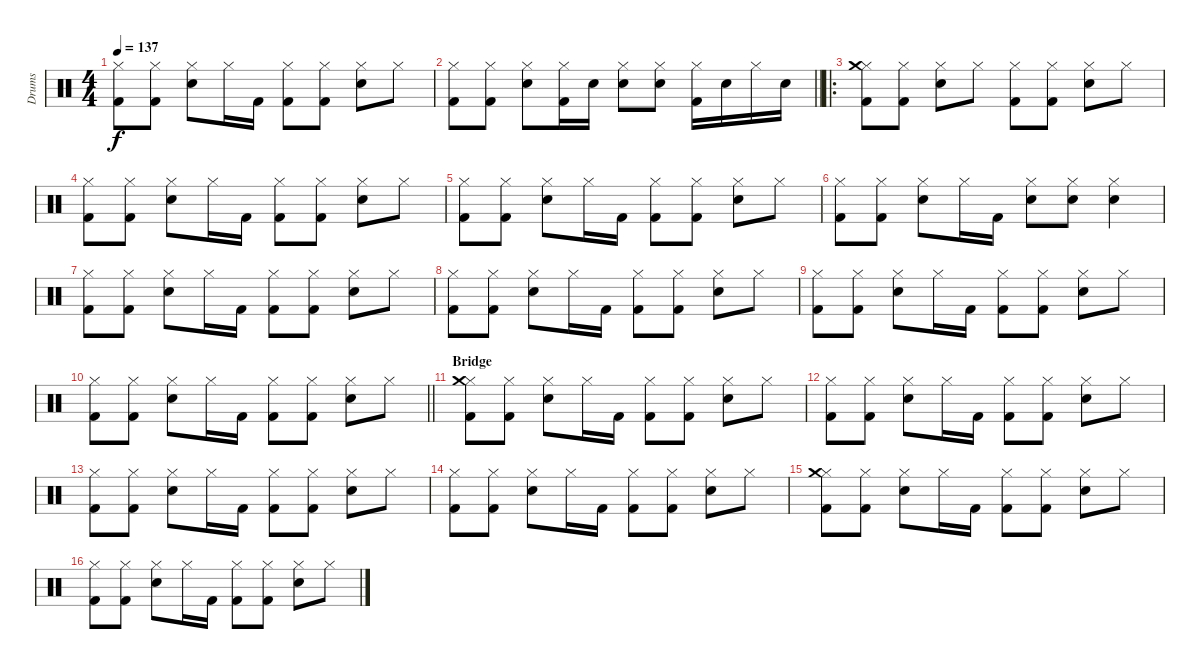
\track ("Drums" "Drums") {instrument percussion}
\staff {score}
\articulation defaults
\ts (4 4)
\tempo 137
\clef neutral
\ks c
("Hi-Hat (closed)" "Kick (hit) 2").8{dy f} ("Hi-Hat (closed)" "Kick (hit) 2").8 ("Hi-Hat (closed)" "Snare (hit) 2").8 "Hi-Hat (closed)".16 "Kick (hit) 2".16 ("Hi-Hat (closed)" "Kick (hit) 2").8 ("Hi-Hat (closed)" "Kick (hit) 2").8 ("Hi-Hat (closed)" "Snare (hit) 2").8 "Hi-Hat (closed)".8 |
\barLineRight lightlight
("Hi-Hat (closed)" "Kick (hit) 2").8 ("Hi-Hat (closed)" "Kick (hit) 2").8 ("Hi-Hat (closed)" "Snare (hit) 2").8 ("Hi-Hat (closed)" "Kick (hit) 2").16 "Snare (hit) 2".16 ("Hi-Hat (closed)" "Snare (hit) 2").8 ("Hi-Hat (closed)" "Snare (hit) 2").8 ("Hi-Hat (closed)" "Kick (hit) 2").16 "Snare (hit) 2".16 "Hi-Hat (closed)".16 "Snare (hit) 2".16 |
\ro
("Hi-Hat (closed)" "Crash medium (hit)" "Kick (hit) 2").8 ("Hi-Hat (closed)" "Kick (hit) 2").8 ("Hi-Hat (closed)" "Snare (hit) 2").8 "Hi-Hat (closed)".8 ("Hi-Hat (closed)" "Kick (hit) 2").8 ("Hi-Hat (closed)" "Kick (hit) 2").8 ("Hi-Hat (closed)" "Snare (hit) 2").8 "Hi-Hat (closed)".8 |
("Hi-Hat (closed)" "Kick (hit) 2").8 ("Hi-Hat (closed)" "Kick (hit) 2").8 ("Hi-Hat (closed)" "Snare (hit) 2").8 "Hi-Hat (closed)".16 "Kick (hit) 2".16 ("Hi-Hat (closed)" "Kick (hit) 2").8 ("Hi-Hat (closed)" "Kick (hit) 2").8 ("Hi-Hat (closed)" "Snare (hit) 2").8 "Hi-Hat (closed)".8 |
("Hi-Hat (closed)" "Kick (hit) 2").8 ("Hi-Hat (closed)" "Kick (hit) 2").8 ("Hi-Hat (closed)" "Snare (hit) 2").8 "Hi-Hat (closed)".16 "Kick (hit) 2".16 ("Hi-Hat (closed)" "Kick (hit) 2").8 ("Hi-Hat (closed)" "Kick (hit) 2").8 ("Hi-Hat (closed)" "Snare (hit) 2").8 "Hi-Hat (closed)".8 |
("Hi-Hat (closed)" "Kick (hit) 2").8 ("Hi-Hat (closed)" "Kick (hit) 2").8 ("Hi-Hat (closed)" "Snare (hit) 2").8 "Hi-Hat (closed)".16 "Kick (hit) 2".16 ("Hi-Hat (closed)" "Snare (hit) 2").8 ("Hi-Hat (closed)" "Snare (hit) 2").8 ("Hi-Hat (closed)" "Snare (hit) 2").4 |
("Hi-Hat (closed)" "Kick (hit) 2").8 ("Hi-Hat (closed)" "Kick (hit) 2").8 ("Hi-Hat (closed)" "Snare (hit) 2").8 "Hi-Hat (closed)".16 "Kick (hit) 2".16 ("Hi-Hat (closed)" "Kick (hit) 2").8 ("Hi-Hat (closed)" "Kick (hit) 2").8 ("Hi-Hat (closed)" "Snare (hit) 2").8 "Hi-Hat (closed)".8 |
("Hi-Hat (closed)" "Kick (hit) 2").8 ("Hi-Hat (closed)" "Kick (hit) 2").8 ("Hi-Hat (closed)" "Snare (hit) 2").8 "Hi-Hat (closed)".16 "Kick (hit) 2".16 ("Hi-Hat (closed)" "Kick (hit) 2").8 ("Hi-Hat (closed)" "Kick (hit) 2").8 ("Hi-Hat (closed)" "Snare (hit) 2").8 "Hi-Hat (closed)".8 |
("Hi-Hat (closed)" "Kick (hit) 2").8 ("Hi-Hat (closed)" "Kick (hit) 2").8 ("Hi-Hat (closed)" "Snare (hit) 2").8 "Hi-Hat (closed)".16 "Kick (hit) 2".16 ("Hi-Hat (closed)" "Kick (hit) 2").8 ("Hi-Hat (closed)" "Kick (hit) 2").8 ("Hi-Hat (closed)" "Snare (hit) 2").8 "Hi-Hat (closed)".8 |
\barLineRight lightlight
("Hi-Hat (closed)" "Kick (hit) 2").8 ("Hi-Hat (closed)" "Kick (hit) 2").8 ("Hi-Hat (closed)" "Snare (hit) 2").8 "Hi-Hat (closed)".16 "Kick (hit) 2".16 ("Hi-Hat (closed)" "Kick (hit) 2").8 ("Hi-Hat (closed)" "Kick (hit) 2").8 ("Hi-Hat (closed)" "Snare (hit) 2").8 "Hi-Hat (closed)".8 |
\section ("" "Bridge")
("Hi-Hat (closed)" "Crash medium (hit)" "Kick (hit) 2").8 ("Hi-Hat (closed)" "Kick (hit) 2").8 ("Hi-Hat (closed)" "Snare (hit) 2").8 "Hi-Hat (closed)".16 "Kick (hit) 2".16 ("Hi-Hat (closed)" "Kick (hit) 2").8 ("Hi-Hat (closed)" "Kick (hit) 2").8 ("Hi-Hat (closed)" "Snare (hit) 2").8 "Hi-Hat (closed)".8 |
("Hi-Hat (closed)" "Kick (hit) 2").8 ("Hi-Hat (closed)" "Kick (hit) 2").8 ("Hi-Hat (closed)" "Snare (hit) 2").8 "Hi-Hat (closed)".16 "Kick (hit) 2".16 ("Hi-Hat (closed)" "Kick (hit) 2").8 ("Hi-Hat (closed)" "Kick (hit) 2").8 ("Hi-Hat (closed)" "Snare (hit) 2").8 "Hi-Hat (closed)".8 |
("Hi-Hat (closed)" "Kick (hit) 2").8 ("Hi-Hat (closed)" "Kick (hit) 2").8 ("Hi-Hat (closed)" "Snare (hit) 2").8 "Hi-Hat (closed)".16 "Kick (hit) 2".16 ("Hi-Hat (closed)" "Kick (hit) 2").8 ("Hi-Hat (closed)" "Kick (hit) 2").8 ("Hi-Hat (closed)" "Snare (hit) 2").8 "Hi-Hat (closed)".8 |
("Hi-Hat (closed)" "Kick (hit) 2").8 ("Hi-Hat (closed)" "Kick (hit) 2").8 ("Hi-Hat (closed)" "Snare (hit) 2").8 "Hi-Hat (closed)".16 "Kick (hit) 2".16 ("Hi-Hat (closed)" "Kick (hit) 2").8 ("Hi-Hat (closed)" "Kick (hit) 2").8 ("Hi-Hat (closed)" "Snare (hit) 2").8 "Hi-Hat (closed)".8 |
("Hi-Hat (closed)" "Crash medium (hit)" "Kick (hit) 2").8 ("Hi-Hat (closed)" "Kick (hit) 2").8 ("Hi-Hat (closed)" "Snare (hit) 2").8 "Hi-Hat (closed)".16 "Kick (hit) 2".16 ("Hi-Hat (closed)" "Kick (hit) 2").8 ("Hi-Hat (closed)" "Kick (hit) 2").8 ("Hi-Hat (closed)" "Snare (hit) 2").8 "Hi-Hat (closed)".8 |
("Hi-Hat (closed)" "Kick (hit) 2").8 ("Hi-Hat (closed)" "Kick (hit) 2").8 ("Hi-Hat (closed)" "Snare (hit) 2").8 "Hi-Hat (closed)".16 "Kick (hit) 2".16 ("Hi-Hat (closed)" "Kick (hit) 2").8 ("Hi-Hat (closed)" "Kick (hit) 2").8 ("Hi-Hat (closed)" "Snare (hit) 2").8 "Hi-Hat (closed)".8
